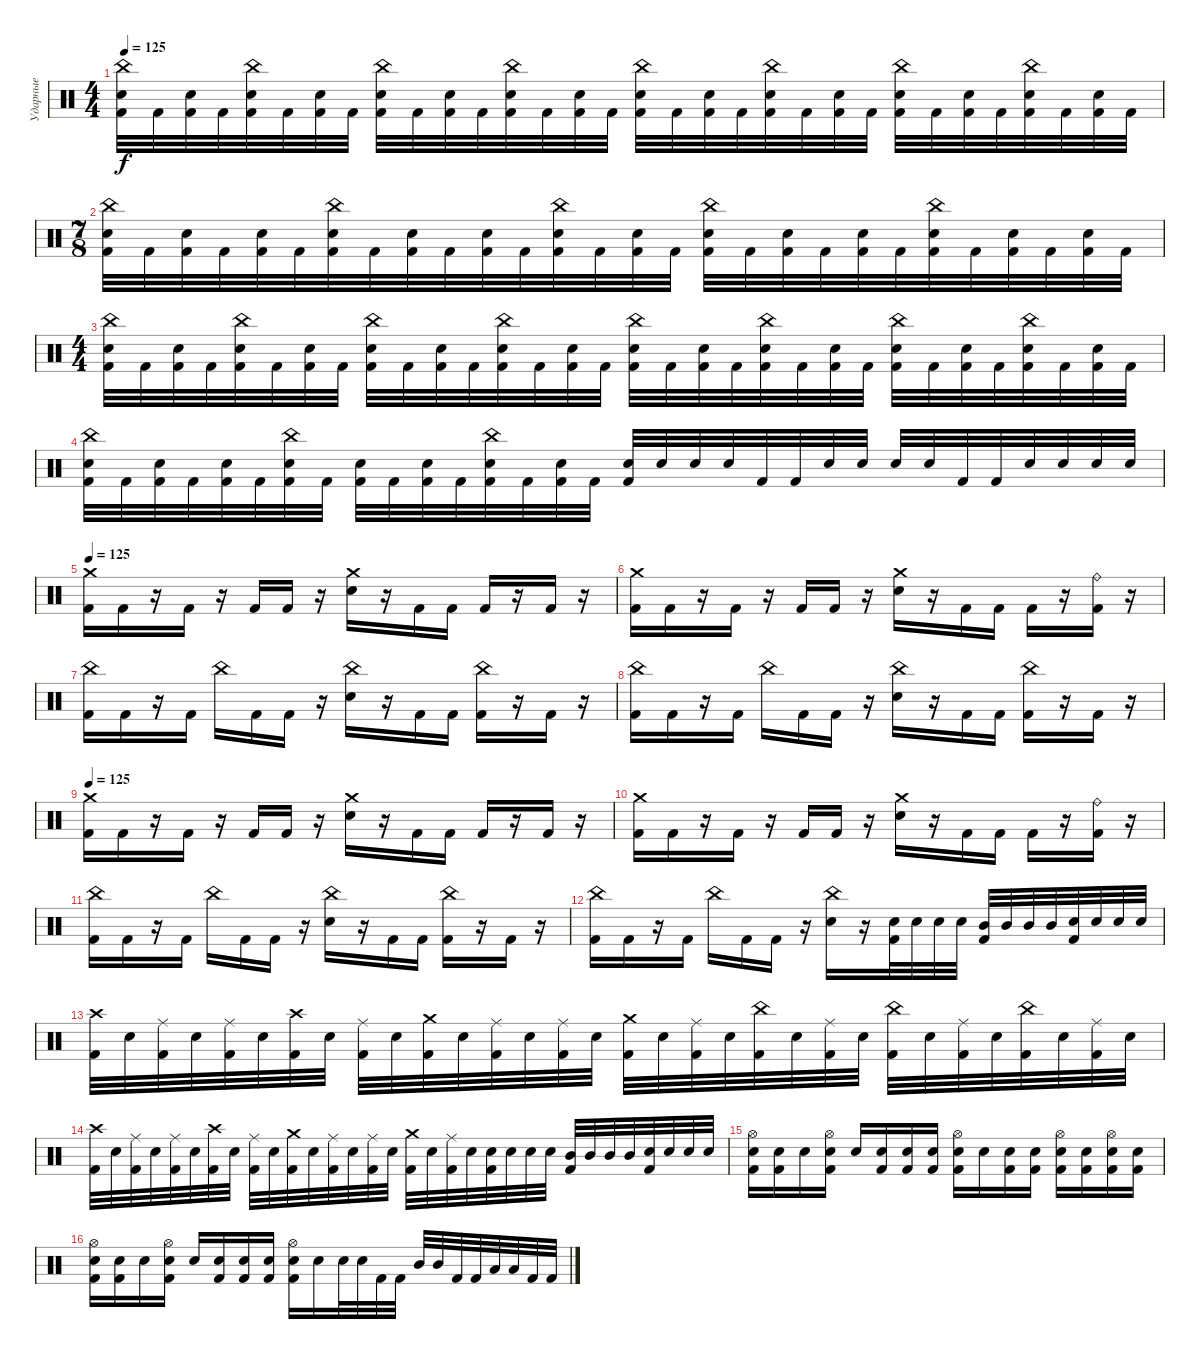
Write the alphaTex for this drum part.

\track ("Ударные" "Ударные") {instrument percussion}
\staff {score}
\articulation defaults
\ts (4 4)
\tempo 125
\clef neutral
\ks c
("China (hit)" "Electric Snare (hit)" "Kick (hit) 2").32{dy f} "Kick (hit) 2".32 ("Electric Snare (hit)" "Kick (hit) 2").32 "Kick (hit) 2".32 ("China (hit)" "Electric Snare (hit)" "Kick (hit) 2").32 "Kick (hit) 2".32 ("Electric Snare (hit)" "Kick (hit) 2").32 "Kick (hit) 2".32 ("China (hit)" "Electric Snare (hit)" "Kick (hit) 2").32 "Kick (hit) 2".32 ("Electric Snare (hit)" "Kick (hit) 2").32 "Kick (hit) 2".32 ("China (hit)" "Electric Snare (hit)" "Kick (hit) 2").32 "Kick (hit) 2".32 ("Electric Snare (hit)" "Kick (hit) 2").32 "Kick (hit) 2".32 ("China (hit)" "Electric Snare (hit)" "Kick (hit) 2").32 "Kick (hit) 2".32 ("Electric Snare (hit)" "Kick (hit) 2").32 "Kick (hit) 2".32 ("China (hit)" "Electric Snare (hit)" "Kick (hit) 2").32 "Kick (hit) 2".32 ("Electric Snare (hit)" "Kick (hit) 2").32 "Kick (hit) 2".32 ("China (hit)" "Electric Snare (hit)" "Kick (hit) 2").32 "Kick (hit) 2".32 ("Electric Snare (hit)" "Kick (hit) 2").32 "Kick (hit) 2".32 ("China (hit)" "Electric Snare (hit)" "Kick (hit) 2").32 "Kick (hit) 2".32 ("Electric Snare (hit)" "Kick (hit) 2").32 "Kick (hit) 2".32 |
\ts (7 8)
("China (hit)" "Electric Snare (hit)" "Kick (hit) 2").32 "Kick (hit) 2".32 ("Electric Snare (hit)" "Kick (hit) 2").32 "Kick (hit) 2".32 ("Electric Snare (hit)" "Kick (hit) 2").32 "Kick (hit) 2".32 ("China (hit)" "Electric Snare (hit)" "Kick (hit) 2").32 "Kick (hit) 2".32 ("Electric Snare (hit)" "Kick (hit) 2").32 "Kick (hit) 2".32 ("Electric Snare (hit)" "Kick (hit) 2").32 "Kick (hit) 2".32 ("China (hit)" "Electric Snare (hit)" "Kick (hit) 2").32 "Kick (hit) 2".32 ("Electric Snare (hit)" "Kick (hit) 2").32 "Kick (hit) 2".32 ("China (hit)" "Electric Snare (hit)" "Kick (hit) 2").32 "Kick (hit) 2".32 ("Electric Snare (hit)" "Kick (hit) 2").32 "Kick (hit) 2".32 ("Electric Snare (hit)" "Kick (hit) 2").32 "Kick (hit) 2".32 ("China (hit)" "Electric Snare (hit)" "Kick (hit) 2").32 "Kick (hit) 2".32 ("Electric Snare (hit)" "Kick (hit) 2").32 "Kick (hit) 2".32 ("Electric Snare (hit)" "Kick (hit) 2").32 "Kick (hit) 2".32 |
\ts (4 4)
("China (hit)" "Electric Snare (hit)" "Kick (hit) 2").32 "Kick (hit) 2".32 ("Electric Snare (hit)" "Kick (hit) 2").32 "Kick (hit) 2".32 ("China (hit)" "Electric Snare (hit)" "Kick (hit) 2").32 "Kick (hit) 2".32 ("Electric Snare (hit)" "Kick (hit) 2").32 "Kick (hit) 2".32 ("China (hit)" "Electric Snare (hit)" "Kick (hit) 2").32 "Kick (hit) 2".32 ("Electric Snare (hit)" "Kick (hit) 2").32 "Kick (hit) 2".32 ("China (hit)" "Electric Snare (hit)" "Kick (hit) 2").32 "Kick (hit) 2".32 ("Electric Snare (hit)" "Kick (hit) 2").32 "Kick (hit) 2".32 ("China (hit)" "Electric Snare (hit)" "Kick (hit) 2").32 "Kick (hit) 2".32 ("Electric Snare (hit)" "Kick (hit) 2").32 "Kick (hit) 2".32 ("China (hit)" "Electric Snare (hit)" "Kick (hit) 2").32 "Kick (hit) 2".32 ("Electric Snare (hit)" "Kick (hit) 2").32 "Kick (hit) 2".32 ("China (hit)" "Electric Snare (hit)" "Kick (hit) 2").32 "Kick (hit) 2".32 ("Electric Snare (hit)" "Kick (hit) 2").32 "Kick (hit) 2".32 ("China (hit)" "Electric Snare (hit)" "Kick (hit) 2").32 "Kick (hit) 2".32 ("Electric Snare (hit)" "Kick (hit) 2").32 "Kick (hit) 2".32 |
("China (hit)" "Electric Snare (hit)" "Kick (hit) 2").32 "Kick (hit) 2".32 ("Electric Snare (hit)" "Kick (hit) 2").32 "Kick (hit) 2".32 ("Electric Snare (hit)" "Kick (hit) 2").32 "Kick (hit) 2".32 ("China (hit)" "Electric Snare (hit)" "Kick (hit) 2").32 "Kick (hit) 2".32 ("Electric Snare (hit)" "Kick (hit) 2").32 "Kick (hit) 2".32 ("Electric Snare (hit)" "Kick (hit) 2").32 "Kick (hit) 2".32 ("China (hit)" "Electric Snare (hit)" "Kick (hit) 2").32 "Kick (hit) 2".32 ("Electric Snare (hit)" "Kick (hit) 2").32 "Kick (hit) 2".32 ("Electric Snare (hit)" "Kick (hit) 2").32 "Electric Snare (hit)".32 "Electric Snare (hit)".32 "Electric Snare (hit)".32 "Kick (hit) 2".32 "Kick (hit) 2".32 "Electric Snare (hit)".32 "Electric Snare (hit)".32 "Electric Snare (hit)".32 "Electric Snare (hit)".32 "Kick (hit) 2".32 "Kick (hit) 2".32 "Electric Snare (hit)".32 "Electric Snare (hit)".32 "Electric Snare (hit)".32 "Electric Snare (hit)".32 |
\tempo 125
("Crash medium (hit)" "Kick (hit) 2").16 "Kick (hit) 2".16 r.16 "Kick (hit) 2".16 r.16 "Kick (hit) 2".16 "Kick (hit) 2".16 r.16 ("Crash medium (hit)" "Electric Snare (hit)").16 r.16 "Kick (hit) 2".16 "Kick (hit) 2".16 "Kick (hit) 2".16 r.16 "Kick (hit) 2".16 r.16 |
("Crash medium (hit)" "Kick (hit) 2").16 "Kick (hit) 2".16 r.16 "Kick (hit) 2".16 r.16 "Kick (hit) 2".16 "Kick (hit) 2".16 r.16 ("Crash medium (hit)" "Electric Snare (hit)").16 r.16 "Kick (hit) 2".16 "Kick (hit) 2".16 "Kick (hit) 2".16 r.16 ("Ride (bell)" "Kick (hit) 2").16 r.16 |
("China (hit)" "Kick (hit) 2").16 "Kick (hit) 2".16 r.16 "Kick (hit) 2".16 "China (hit)".16 "Kick (hit) 2".16 "Kick (hit) 2".16 r.16 ("China (hit)" "Electric Snare (hit)").16 r.16 "Kick (hit) 2".16 "Kick (hit) 2".16 ("China (hit)" "Kick (hit) 2").16 r.16 "Kick (hit) 2".16 r.16 |
("China (hit)" "Kick (hit) 2").16 "Kick (hit) 2".16 r.16 "Kick (hit) 2".16 "China (hit)".16 "Kick (hit) 2".16 "Kick (hit) 2".16 r.16 ("China (hit)" "Electric Snare (hit)").16 r.16 "Kick (hit) 2".16 "Kick (hit) 2".16 ("China (hit)" "Kick (hit) 2").16 r.16 "Kick (hit) 2".16 r.16 |
\tempo 125
("Crash medium (hit)" "Kick (hit) 2").16 "Kick (hit) 2".16 r.16 "Kick (hit) 2".16 r.16 "Kick (hit) 2".16 "Kick (hit) 2".16 r.16 ("Crash medium (hit)" "Electric Snare (hit)").16 r.16 "Kick (hit) 2".16 "Kick (hit) 2".16 "Kick (hit) 2".16 r.16 "Kick (hit) 2".16 r.16 |
("Crash medium (hit)" "Kick (hit) 2").16 "Kick (hit) 2".16 r.16 "Kick (hit) 2".16 r.16 "Kick (hit) 2".16 "Kick (hit) 2".16 r.16 ("Crash medium (hit)" "Electric Snare (hit)").16 r.16 "Kick (hit) 2".16 "Kick (hit) 2".16 "Kick (hit) 2".16 r.16 ("Ride (bell)" "Kick (hit) 2").16 r.16 |
("China (hit)" "Kick (hit) 2").16 "Kick (hit) 2".16 r.16 "Kick (hit) 2".16 "China (hit)".16 "Kick (hit) 2".16 "Kick (hit) 2".16 r.16 ("China (hit)" "Electric Snare (hit)").16 r.16 "Kick (hit) 2".16 "Kick (hit) 2".16 ("China (hit)" "Kick (hit) 2").16 r.16 "Kick (hit) 2".16 r.16 |
("China (hit)" "Kick (hit) 2").16 "Kick (hit) 2".16 r.16 "Kick (hit) 2".16 "China (hit)".16 "Kick (hit) 2".16 "Kick (hit) 2".16 r.16 ("China (hit)" "Electric Snare (hit)").16 r.16 ("Kick (hit) 2" "Electric Snare (hit)").32 "Electric Snare (hit)".32 "Electric Snare (hit)".32 "Electric Snare (hit)".32 ("Kick (hit) 2" "Mid Tom (hit)").32 "Mid Tom (hit)".32 "Mid Tom (hit)".32 "Mid Tom (hit)".32 ("Kick (hit) 2" "Electric Snare (hit)").32 "Electric Snare (hit)".32 "Electric Snare (hit)".32 "Electric Snare (hit)".32 |
("Crash high (hit)" "Kick (hit) 2").32 "Electric Snare (hit)".32 ("Ride (middle)" "Kick (hit) 2").32 "Electric Snare (hit)".32 ("Ride (middle)" "Kick (hit) 2").32 "Electric Snare (hit)".32 ("Crash high (hit)" "Kick (hit) 2").32 "Electric Snare (hit)".32 ("Ride (middle)" "Kick (hit) 2").32 "Electric Snare (hit)".32 ("Crash medium (hit)" "Kick (hit) 2").32 "Electric Snare (hit)".32 ("Ride (middle)" "Kick (hit) 2").32 "Electric Snare (hit)".32 ("Ride (middle)" "Kick (hit) 2").32 "Electric Snare (hit)".32 ("Crash medium (hit)" "Kick (hit) 2").32 "Electric Snare (hit)".32 ("Ride (middle)" "Kick (hit) 2").32 "Electric Snare (hit)".32 ("China (hit)" "Kick (hit) 2").32 "Electric Snare (hit)".32 ("Ride (middle)" "Kick (hit) 2").32 "Electric Snare (hit)".32 ("China (hit)" "Kick (hit) 2").32 "Electric Snare (hit)".32 ("Ride (middle)" "Kick (hit) 2").32 "Electric Snare (hit)".32 ("China (hit)" "Kick (hit) 2").32 "Electric Snare (hit)".32 ("Ride (middle)" "Kick (hit) 2").32 "Electric Snare (hit)".32 |
("Crash high (hit)" "Kick (hit) 2").32 "Electric Snare (hit)".32 ("Ride (middle)" "Kick (hit) 2").32 "Electric Snare (hit)".32 ("Ride (middle)" "Kick (hit) 2").32 "Electric Snare (hit)".32 ("Crash high (hit)" "Kick (hit) 2").32 "Electric Snare (hit)".32 ("Ride (middle)" "Kick (hit) 2").32 "Electric Snare (hit)".32 ("Crash medium (hit)" "Kick (hit) 2").32 "Electric Snare (hit)".32 ("Ride (middle)" "Kick (hit) 2").32 "Electric Snare (hit)".32 ("Ride (middle)" "Kick (hit) 2").32 "Electric Snare (hit)".32 ("Crash medium (hit)" "Kick (hit) 2").32 "Electric Snare (hit)".32 ("Ride (middle)" "Kick (hit) 2").32 "Electric Snare (hit)".32 ("Kick (hit) 2" "Electric Snare (hit)").32 "Electric Snare (hit)".32 "Electric Snare (hit)".32 "Electric Snare (hit)".32 ("Kick (hit) 2" "Mid Tom (hit)").32 "Mid Tom (hit)".32 "Mid Tom (hit)".32 "Mid Tom (hit)".32 ("Kick (hit) 2" "Electric Snare (hit)").32 "Electric Snare (hit)".32 "Electric Snare (hit)".32 "Electric Snare (hit)".32 |
("Hi-Hat (open)" "Electric Snare (hit)" "Kick (hit) 2").16 ("Electric Snare (hit)" "Kick (hit) 2").16 "Electric Snare (hit)".16 ("Hi-Hat (open)" "Electric Snare (hit)" "Kick (hit) 2").16 "Electric Snare (hit)".16 ("Electric Snare (hit)" "Kick (hit) 2").16 ("Electric Snare (hit)" "Kick (hit) 2").16 ("Electric Snare (hit)" "Kick (hit) 2").16 ("Hi-Hat (open)" "Electric Snare (hit)" "Kick (hit) 2").16 "Electric Snare (hit)".16 ("Electric Snare (hit)" "Kick (hit) 2").16 ("Electric Snare (hit)" "Kick (hit) 2").16 ("Hi-Hat (open)" "Electric Snare (hit)" "Kick (hit) 2").16 ("Electric Snare (hit)" "Kick (hit) 2").16 ("Hi-Hat (open)" "Electric Snare (hit)" "Kick (hit) 2").16 ("Electric Snare (hit)" "Kick (hit) 2").16 |
("Hi-Hat (open)" "Electric Snare (hit)" "Kick (hit) 2").16 ("Electric Snare (hit)" "Kick (hit) 2").16 "Electric Snare (hit)".16 ("Hi-Hat (open)" "Electric Snare (hit)" "Kick (hit) 2").16 "Electric Snare (hit)".16 ("Electric Snare (hit)" "Kick (hit) 2").16 ("Electric Snare (hit)" "Kick (hit) 2").16 ("Electric Snare (hit)" "Kick (hit) 2").16 ("Hi-Hat (open)" "Electric Snare (hit)" "Kick (hit) 2").16 "Electric Snare (hit)".16 "Electric Snare (hit)".32 "Electric Snare (hit)".32 "Kick (hit) 2".32 "Kick (hit) 2".32 "Mid Tom (hit)".32 "Mid Tom (hit)".32 "Kick (hit) 2".32 "Kick (hit) 2".32 "Low Tom (hit)".32 "Low Tom (hit)".32 "Kick (hit) 2".32 "Kick (hit) 2".32
